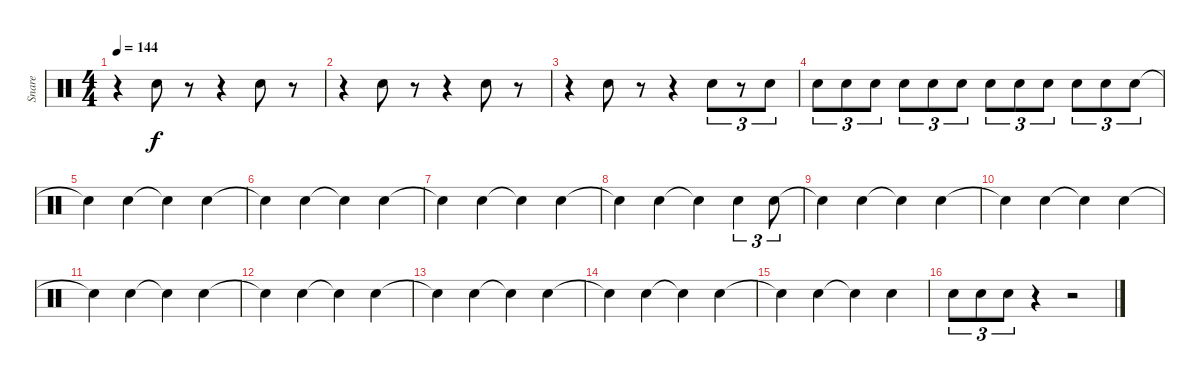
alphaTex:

\track ("Snare" "Snare") {instrument percussion}
\staff {score}
\articulation defaults
\ts (4 4)
\tempo 144
\clef neutral
\ks c
r.4{dy f} "Snare (hit) 2".8 r.8 r.4 "Snare (hit) 2".8 r.8 |
r.4 "Snare (hit) 2".8 r.8 r.4 "Snare (hit) 2".8 r.8 |
r.4 "Snare (hit) 2".8 r.8 r.4 "Snare (hit) 2".8{tu (3 2)} r.8{tu (3 2)} "Snare (hit) 2".8{tu (3 2)} |
"Snare (hit) 2".8{tu (3 2)} "Snare (hit) 2".8{tu (3 2)} "Snare (hit) 2".8{tu (3 2)} "Snare (hit) 2".8{tu (3 2)} "Snare (hit) 2".8{tu (3 2)} "Snare (hit) 2".8{tu (3 2)} "Snare (hit) 2".8{tu (3 2)} "Snare (hit) 2".8{tu (3 2)} "Snare (hit) 2".8{tu (3 2)} "Snare (hit) 2".8{tu (3 2)} "Snare (hit) 2".8{tu (3 2)} "Snare (hit) 2".8{tu (3 2)} |
"Snare (hit) 2"{t}.4 "Snare (hit) 2".4 "Snare (hit) 2"{t}.4 "Snare (hit) 2".4 |
"Snare (hit) 2"{t}.4 "Snare (hit) 2".4 "Snare (hit) 2"{t}.4 "Snare (hit) 2".4 |
"Snare (hit) 2"{t}.4 "Snare (hit) 2".4 "Snare (hit) 2"{t}.4 "Snare (hit) 2".4 |
"Snare (hit) 2"{t}.4 "Snare (hit) 2".4 "Snare (hit) 2"{t}.4 "Snare (hit) 2".4{tu (3 2)} "Snare (hit) 2".8{tu (3 2)} |
"Snare (hit) 2"{t}.4 "Snare (hit) 2".4 "Snare (hit) 2"{t}.4 "Snare (hit) 2".4 |
"Snare (hit) 2"{t}.4 "Snare (hit) 2".4 "Snare (hit) 2"{t}.4 "Snare (hit) 2".4 |
"Snare (hit) 2"{t}.4 "Snare (hit) 2".4 "Snare (hit) 2"{t}.4 "Snare (hit) 2".4 |
"Snare (hit) 2"{t}.4 "Snare (hit) 2".4 "Snare (hit) 2"{t}.4 "Snare (hit) 2".4 |
"Snare (hit) 2"{t}.4 "Snare (hit) 2".4 "Snare (hit) 2"{t}.4 "Snare (hit) 2".4 |
"Snare (hit) 2"{t}.4 "Snare (hit) 2".4 "Snare (hit) 2"{t}.4 "Snare (hit) 2".4 |
"Snare (hit) 2"{t}.4 "Snare (hit) 2".4 "Snare (hit) 2"{t}.4 "Snare (hit) 2".4 |
"Snare (hit) 2".8{tu (3 2)} "Snare (hit) 2".8{tu (3 2)} "Snare (hit) 2".8{tu (3 2)} r.4 r.2
